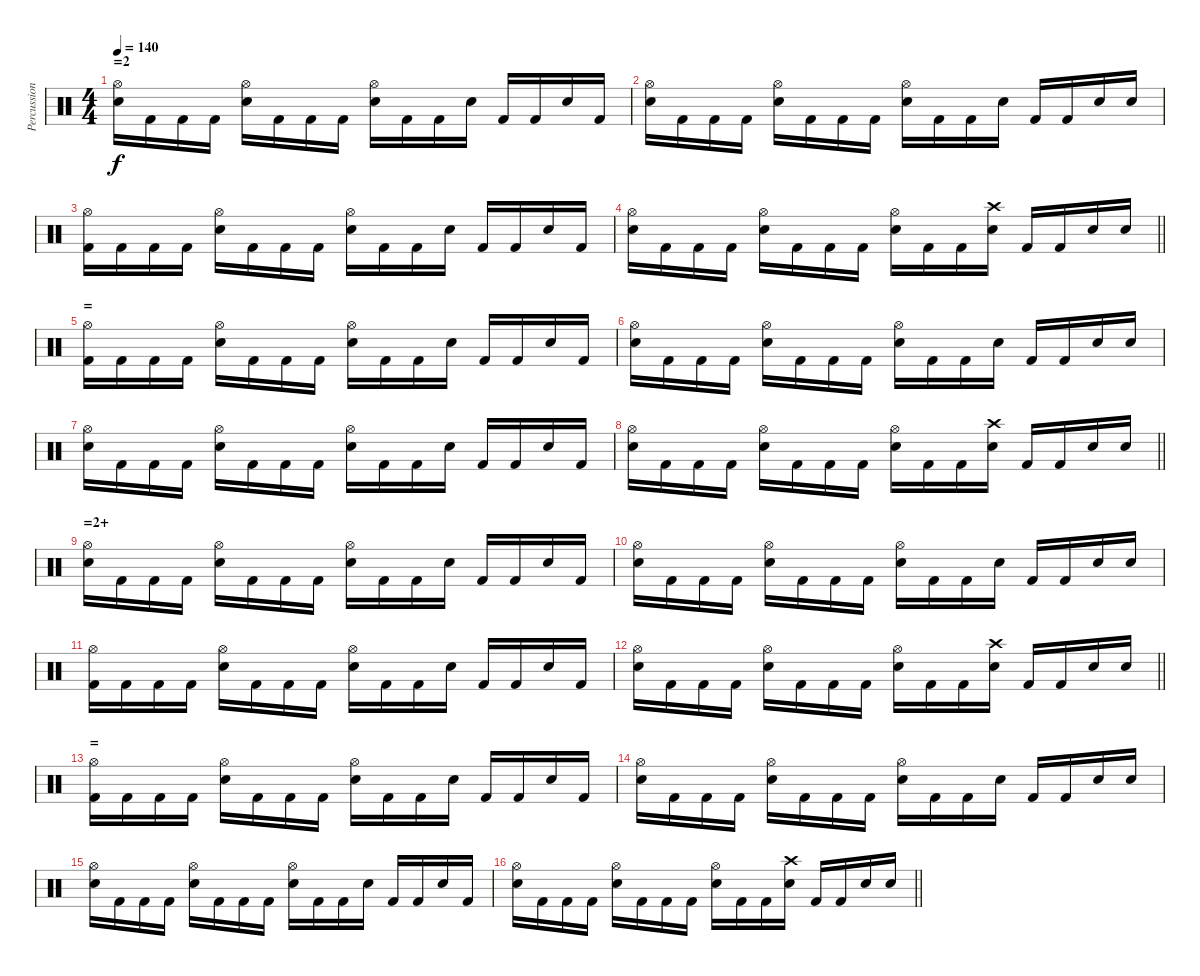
\track ("Percussion" "Percussion") {instrument percussion}
\staff {score}
\articulation defaults
\ts (4 4)
\section ("" "=2")
\tempo 140
\clef neutral
\ks c
("Electric Snare (hit)" "Hi-Hat (open)").16{dy f} "Kick (hit) 2".16 "Kick (hit) 2".16 "Kick (hit) 2".16 ("Electric Snare (hit)" "Hi-Hat (open)").16 "Kick (hit) 2".16 "Kick (hit) 2".16 "Kick (hit) 2".16 ("Electric Snare (hit)" "Hi-Hat (open)").16 "Kick (hit) 2".16 "Kick (hit) 2".16 "Electric Snare (hit)".16 "Kick (hit) 2".16 "Kick (hit) 2".16 "Electric Snare (hit)".16 "Kick (hit) 2".16 |
("Electric Snare (hit)" "Hi-Hat (open)").16 "Kick (hit) 2".16 "Kick (hit) 2".16 "Kick (hit) 2".16 ("Electric Snare (hit)" "Hi-Hat (open)").16 "Kick (hit) 2".16 "Kick (hit) 2".16 "Kick (hit) 2".16 ("Electric Snare (hit)" "Hi-Hat (open)").16 "Kick (hit) 2".16 "Kick (hit) 2".16 "Electric Snare (hit)".16 "Kick (hit) 2".16 "Kick (hit) 2".16 "Electric Snare (hit)".16 "Electric Snare (hit)".16 |
("Kick (hit) 2" "Hi-Hat (open)").16 "Kick (hit) 2".16 "Kick (hit) 2".16 "Kick (hit) 2".16 ("Electric Snare (hit)" "Hi-Hat (open)").16 "Kick (hit) 2".16 "Kick (hit) 2".16 "Kick (hit) 2".16 ("Electric Snare (hit)" "Hi-Hat (open)").16 "Kick (hit) 2".16 "Kick (hit) 2".16 "Electric Snare (hit)".16 "Kick (hit) 2".16 "Kick (hit) 2".16 "Electric Snare (hit)".16 "Kick (hit) 2".16 |
\barLineRight lightlight
("Electric Snare (hit)" "Hi-Hat (open)").16 "Kick (hit) 2".16 "Kick (hit) 2".16 "Kick (hit) 2".16 ("Electric Snare (hit)" "Hi-Hat (open)").16 "Kick (hit) 2".16 "Kick (hit) 2".16 "Kick (hit) 2".16 ("Electric Snare (hit)" "Hi-Hat (open)").16 "Kick (hit) 2".16 "Kick (hit) 2".16 ("Electric Snare (hit)" "Crash high (hit)").16 "Kick (hit) 2".16 "Kick (hit) 2".16 "Electric Snare (hit)".16 "Electric Snare (hit)".16 |
\section ("" "=")
("Kick (hit) 2" "Hi-Hat (open)").16 "Kick (hit) 2".16 "Kick (hit) 2".16 "Kick (hit) 2".16 ("Electric Snare (hit)" "Hi-Hat (open)").16 "Kick (hit) 2".16 "Kick (hit) 2".16 "Kick (hit) 2".16 ("Electric Snare (hit)" "Hi-Hat (open)").16 "Kick (hit) 2".16 "Kick (hit) 2".16 "Electric Snare (hit)".16 "Kick (hit) 2".16 "Kick (hit) 2".16 "Electric Snare (hit)".16 "Kick (hit) 2".16 |
("Electric Snare (hit)" "Hi-Hat (open)").16 "Kick (hit) 2".16 "Kick (hit) 2".16 "Kick (hit) 2".16 ("Electric Snare (hit)" "Hi-Hat (open)").16 "Kick (hit) 2".16 "Kick (hit) 2".16 "Kick (hit) 2".16 ("Electric Snare (hit)" "Hi-Hat (open)").16 "Kick (hit) 2".16 "Kick (hit) 2".16 "Electric Snare (hit)".16 "Kick (hit) 2".16 "Kick (hit) 2".16 "Electric Snare (hit)".16 "Electric Snare (hit)".16 |
("Electric Snare (hit)" "Hi-Hat (open)").16 "Kick (hit) 2".16 "Kick (hit) 2".16 "Kick (hit) 2".16 ("Electric Snare (hit)" "Hi-Hat (open)").16 "Kick (hit) 2".16 "Kick (hit) 2".16 "Kick (hit) 2".16 ("Electric Snare (hit)" "Hi-Hat (open)").16 "Kick (hit) 2".16 "Kick (hit) 2".16 "Electric Snare (hit)".16 "Kick (hit) 2".16 "Kick (hit) 2".16 "Electric Snare (hit)".16 "Kick (hit) 2".16 |
\barLineRight lightlight
("Electric Snare (hit)" "Hi-Hat (open)").16 "Kick (hit) 2".16 "Kick (hit) 2".16 "Kick (hit) 2".16 ("Electric Snare (hit)" "Hi-Hat (open)").16 "Kick (hit) 2".16 "Kick (hit) 2".16 "Kick (hit) 2".16 ("Electric Snare (hit)" "Hi-Hat (open)").16 "Kick (hit) 2".16 "Kick (hit) 2".16 ("Electric Snare (hit)" "Crash high (hit)").16 "Kick (hit) 2".16 "Kick (hit) 2".16 "Electric Snare (hit)".16 "Electric Snare (hit)".16 |
\section ("" "=2+")
("Electric Snare (hit)" "Hi-Hat (open)").16 "Kick (hit) 2".16 "Kick (hit) 2".16 "Kick (hit) 2".16 ("Electric Snare (hit)" "Hi-Hat (open)").16 "Kick (hit) 2".16 "Kick (hit) 2".16 "Kick (hit) 2".16 ("Electric Snare (hit)" "Hi-Hat (open)").16 "Kick (hit) 2".16 "Kick (hit) 2".16 "Electric Snare (hit)".16 "Kick (hit) 2".16 "Kick (hit) 2".16 "Electric Snare (hit)".16 "Kick (hit) 2".16 |
("Electric Snare (hit)" "Hi-Hat (open)").16 "Kick (hit) 2".16 "Kick (hit) 2".16 "Kick (hit) 2".16 ("Electric Snare (hit)" "Hi-Hat (open)").16 "Kick (hit) 2".16 "Kick (hit) 2".16 "Kick (hit) 2".16 ("Electric Snare (hit)" "Hi-Hat (open)").16 "Kick (hit) 2".16 "Kick (hit) 2".16 "Electric Snare (hit)".16 "Kick (hit) 2".16 "Kick (hit) 2".16 "Electric Snare (hit)".16 "Electric Snare (hit)".16 |
("Kick (hit) 2" "Hi-Hat (open)").16 "Kick (hit) 2".16 "Kick (hit) 2".16 "Kick (hit) 2".16 ("Electric Snare (hit)" "Hi-Hat (open)").16 "Kick (hit) 2".16 "Kick (hit) 2".16 "Kick (hit) 2".16 ("Electric Snare (hit)" "Hi-Hat (open)").16 "Kick (hit) 2".16 "Kick (hit) 2".16 "Electric Snare (hit)".16 "Kick (hit) 2".16 "Kick (hit) 2".16 "Electric Snare (hit)".16 "Kick (hit) 2".16 |
\barLineRight lightlight
("Electric Snare (hit)" "Hi-Hat (open)").16 "Kick (hit) 2".16 "Kick (hit) 2".16 "Kick (hit) 2".16 ("Electric Snare (hit)" "Hi-Hat (open)").16 "Kick (hit) 2".16 "Kick (hit) 2".16 "Kick (hit) 2".16 ("Electric Snare (hit)" "Hi-Hat (open)").16 "Kick (hit) 2".16 "Kick (hit) 2".16 ("Electric Snare (hit)" "Crash high (hit)").16 "Kick (hit) 2".16 "Kick (hit) 2".16 "Electric Snare (hit)".16 "Electric Snare (hit)".16 |
\section ("" "=")
("Kick (hit) 2" "Hi-Hat (open)").16 "Kick (hit) 2".16 "Kick (hit) 2".16 "Kick (hit) 2".16 ("Electric Snare (hit)" "Hi-Hat (open)").16 "Kick (hit) 2".16 "Kick (hit) 2".16 "Kick (hit) 2".16 ("Electric Snare (hit)" "Hi-Hat (open)").16 "Kick (hit) 2".16 "Kick (hit) 2".16 "Electric Snare (hit)".16 "Kick (hit) 2".16 "Kick (hit) 2".16 "Electric Snare (hit)".16 "Kick (hit) 2".16 |
("Electric Snare (hit)" "Hi-Hat (open)").16 "Kick (hit) 2".16 "Kick (hit) 2".16 "Kick (hit) 2".16 ("Electric Snare (hit)" "Hi-Hat (open)").16 "Kick (hit) 2".16 "Kick (hit) 2".16 "Kick (hit) 2".16 ("Electric Snare (hit)" "Hi-Hat (open)").16 "Kick (hit) 2".16 "Kick (hit) 2".16 "Electric Snare (hit)".16 "Kick (hit) 2".16 "Kick (hit) 2".16 "Electric Snare (hit)".16 "Electric Snare (hit)".16 |
("Electric Snare (hit)" "Hi-Hat (open)").16 "Kick (hit) 2".16 "Kick (hit) 2".16 "Kick (hit) 2".16 ("Electric Snare (hit)" "Hi-Hat (open)").16 "Kick (hit) 2".16 "Kick (hit) 2".16 "Kick (hit) 2".16 ("Electric Snare (hit)" "Hi-Hat (open)").16 "Kick (hit) 2".16 "Kick (hit) 2".16 "Electric Snare (hit)".16 "Kick (hit) 2".16 "Kick (hit) 2".16 "Electric Snare (hit)".16 "Kick (hit) 2".16 |
\barLineRight lightlight
("Electric Snare (hit)" "Hi-Hat (open)").16 "Kick (hit) 2".16 "Kick (hit) 2".16 "Kick (hit) 2".16 ("Electric Snare (hit)" "Hi-Hat (open)").16 "Kick (hit) 2".16 "Kick (hit) 2".16 "Kick (hit) 2".16 ("Electric Snare (hit)" "Hi-Hat (open)").16 "Kick (hit) 2".16 "Kick (hit) 2".16 ("Electric Snare (hit)" "Crash high (hit)").16 "Kick (hit) 2".16 "Kick (hit) 2".16 "Electric Snare (hit)".16 "Electric Snare (hit)".16
